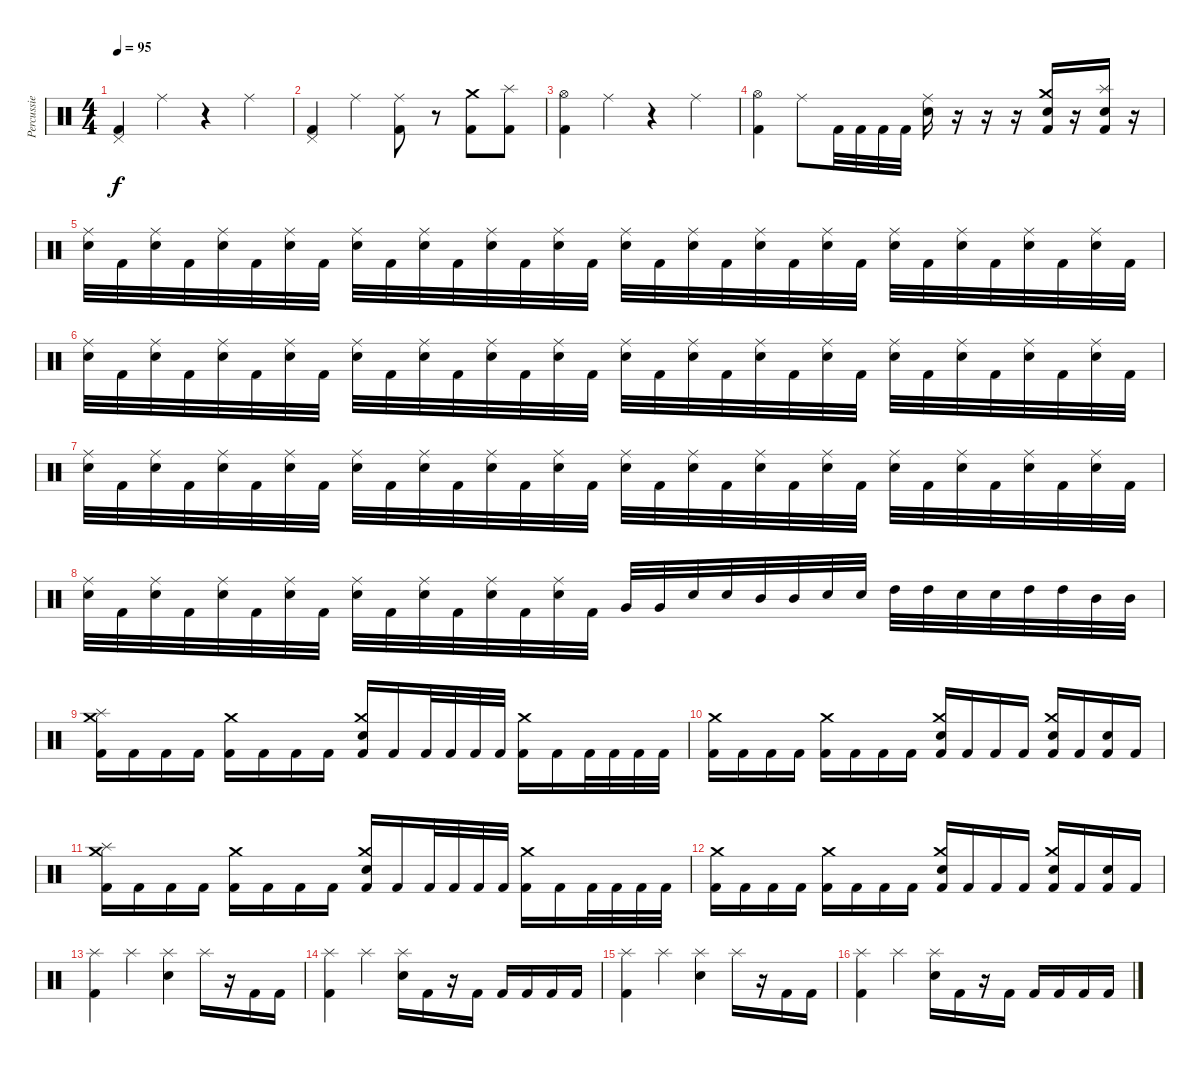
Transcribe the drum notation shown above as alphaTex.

\track ("Percussie" "Percussie") {instrument percussion}
\staff {score}
\articulation defaults
\ts (4 4)
\tempo 95
\clef neutral
\ks c
("Pedal Hi-Hat (hit)" "Kick (hit) 2").4{dy f} "Ride (middle)".4 r.4 "Ride (middle)".4 |
("Pedal Hi-Hat (hit)" "Kick (hit) 2").4 "Ride (middle)".4 ("Ride (middle)" "Kick (hit) 2").8 r.8 ("Crash medium (hit)" "Kick (hit) 2").8 ("Splash (hit)" "Kick (hit) 2").8 |
("Hi-Hat (open)" "Kick (hit) 2").4 "Ride (middle)".4 r.4 "Ride (middle)".4 |
("Hi-Hat (open)" "Kick (hit) 2").4 "Ride (middle)".8 "Kick (hit) 2".32 "Kick (hit) 2".32 "Kick (hit) 2".32 "Kick (hit) 2".32 ("Ride (middle)" "Electric Snare (hit)").16 r.16 r.16 r.16 ("Crash medium (hit)" "Electric Snare (hit)" "Kick (hit) 2").16 r.16 ("Splash (hit)" "Electric Snare (hit)" "Kick (hit) 2").16 r.16 |
("Ride (middle)" "Electric Snare (hit)").32 "Kick (hit) 2".32 ("Ride (middle)" "Electric Snare (hit)").32 "Kick (hit) 2".32 ("Ride (middle)" "Electric Snare (hit)").32 "Kick (hit) 2".32 ("Ride (middle)" "Electric Snare (hit)").32 "Kick (hit) 2".32 ("Ride (middle)" "Electric Snare (hit)").32 "Kick (hit) 2".32 ("Ride (middle)" "Electric Snare (hit)").32 "Kick (hit) 2".32 ("Ride (middle)" "Electric Snare (hit)").32 "Kick (hit) 2".32 ("Ride (middle)" "Electric Snare (hit)").32 "Kick (hit) 2".32 ("Ride (middle)" "Electric Snare (hit)").32 "Kick (hit) 2".32 ("Ride (middle)" "Electric Snare (hit)").32 "Kick (hit) 2".32 ("Ride (middle)" "Electric Snare (hit)").32 "Kick (hit) 2".32 ("Ride (middle)" "Electric Snare (hit)").32 "Kick (hit) 2".32 ("Ride (middle)" "Electric Snare (hit)").32 "Kick (hit) 2".32 ("Ride (middle)" "Electric Snare (hit)").32 "Kick (hit) 2".32 ("Ride (middle)" "Electric Snare (hit)").32 "Kick (hit) 2".32 ("Ride (middle)" "Electric Snare (hit)").32 "Kick (hit) 2".32 |
("Ride (middle)" "Electric Snare (hit)").32 "Kick (hit) 2".32 ("Ride (middle)" "Electric Snare (hit)").32 "Kick (hit) 2".32 ("Ride (middle)" "Electric Snare (hit)").32 "Kick (hit) 2".32 ("Ride (middle)" "Electric Snare (hit)").32 "Kick (hit) 2".32 ("Ride (middle)" "Electric Snare (hit)").32 "Kick (hit) 2".32 ("Ride (middle)" "Electric Snare (hit)").32 "Kick (hit) 2".32 ("Ride (middle)" "Electric Snare (hit)").32 "Kick (hit) 2".32 ("Ride (middle)" "Electric Snare (hit)").32 "Kick (hit) 2".32 ("Ride (middle)" "Electric Snare (hit)").32 "Kick (hit) 2".32 ("Ride (middle)" "Electric Snare (hit)").32 "Kick (hit) 2".32 ("Ride (middle)" "Electric Snare (hit)").32 "Kick (hit) 2".32 ("Ride (middle)" "Electric Snare (hit)").32 "Kick (hit) 2".32 ("Ride (middle)" "Electric Snare (hit)").32 "Kick (hit) 2".32 ("Ride (middle)" "Electric Snare (hit)").32 "Kick (hit) 2".32 ("Ride (middle)" "Electric Snare (hit)").32 "Kick (hit) 2".32 ("Ride (middle)" "Electric Snare (hit)").32 "Kick (hit) 2".32 |
("Ride (middle)" "Electric Snare (hit)").32 "Kick (hit) 2".32 ("Ride (middle)" "Electric Snare (hit)").32 "Kick (hit) 2".32 ("Ride (middle)" "Electric Snare (hit)").32 "Kick (hit) 2".32 ("Ride (middle)" "Electric Snare (hit)").32 "Kick (hit) 2".32 ("Ride (middle)" "Electric Snare (hit)").32 "Kick (hit) 2".32 ("Ride (middle)" "Electric Snare (hit)").32 "Kick (hit) 2".32 ("Ride (middle)" "Electric Snare (hit)").32 "Kick (hit) 2".32 ("Ride (middle)" "Electric Snare (hit)").32 "Kick (hit) 2".32 ("Ride (middle)" "Electric Snare (hit)").32 "Kick (hit) 2".32 ("Ride (middle)" "Electric Snare (hit)").32 "Kick (hit) 2".32 ("Ride (middle)" "Electric Snare (hit)").32 "Kick (hit) 2".32 ("Ride (middle)" "Electric Snare (hit)").32 "Kick (hit) 2".32 ("Ride (middle)" "Electric Snare (hit)").32 "Kick (hit) 2".32 ("Ride (middle)" "Electric Snare (hit)").32 "Kick (hit) 2".32 ("Ride (middle)" "Electric Snare (hit)").32 "Kick (hit) 2".32 ("Ride (middle)" "Electric Snare (hit)").32 "Kick (hit) 2".32 |
("Ride (middle)" "Electric Snare (hit)").32 "Kick (hit) 2".32 ("Ride (middle)" "Electric Snare (hit)").32 "Kick (hit) 2".32 ("Ride (middle)" "Electric Snare (hit)").32 "Kick (hit) 2".32 ("Ride (middle)" "Electric Snare (hit)").32 "Kick (hit) 2".32 ("Ride (middle)" "Electric Snare (hit)").32 "Kick (hit) 2".32 ("Ride (middle)" "Electric Snare (hit)").32 "Kick (hit) 2".32 ("Ride (middle)" "Electric Snare (hit)").32 "Kick (hit) 2".32 ("Ride (middle)" "Electric Snare (hit)").32 "Kick (hit) 2".32 "Very Low Tom (hit)".32 "Very Low Tom (hit)".32 "Electric Snare (hit)".32 "Electric Snare (hit)".32 "Mid Tom (hit)".32 "Mid Tom (hit)".32 "Electric Snare (hit)".32 "Electric Snare (hit)".32 "High Tom (hit)".32 "High Tom (hit)".32 "Electric Snare (hit)".32 "Electric Snare (hit)".32 "High Tom (hit)".32 "High Tom (hit)".32 "Mid Tom (hit)".32 "Mid Tom (hit)".32 |
("Crash medium (hit)" "Splash (hit)" "Kick (hit) 2").16 "Kick (hit) 2".16 "Kick (hit) 2".16 "Kick (hit) 2".16 ("Crash medium (hit)" "Kick (hit) 2").16 "Kick (hit) 2".16 "Kick (hit) 2".16 "Kick (hit) 2".16 ("Crash medium (hit)" "Electric Snare (hit)" "Kick (hit) 2").16 "Kick (hit) 2".16 "Kick (hit) 2".32 "Kick (hit) 2".32 "Kick (hit) 2".32 "Kick (hit) 2".32 ("Crash medium (hit)" "Kick (hit) 2").16 "Kick (hit) 2".16 "Kick (hit) 2".32 "Kick (hit) 2".32 "Kick (hit) 2".32 "Kick (hit) 2".32 |
("Crash medium (hit)" "Kick (hit) 2").16 "Kick (hit) 2".16 "Kick (hit) 2".16 "Kick (hit) 2".16 ("Crash medium (hit)" "Kick (hit) 2").16 "Kick (hit) 2".16 "Kick (hit) 2".16 "Kick (hit) 2".16 ("Crash medium (hit)" "Electric Snare (hit)" "Kick (hit) 2").16 "Kick (hit) 2".16 "Kick (hit) 2".16 "Kick (hit) 2".16 ("Crash medium (hit)" "Electric Snare (hit)" "Kick (hit) 2").16 "Kick (hit) 2".16 ("Electric Snare (hit)" "Kick (hit) 2").16 "Kick (hit) 2".16 |
("Crash medium (hit)" "Splash (hit)" "Kick (hit) 2").16 "Kick (hit) 2".16 "Kick (hit) 2".16 "Kick (hit) 2".16 ("Crash medium (hit)" "Kick (hit) 2").16 "Kick (hit) 2".16 "Kick (hit) 2".16 "Kick (hit) 2".16 ("Crash medium (hit)" "Electric Snare (hit)" "Kick (hit) 2").16 "Kick (hit) 2".16 "Kick (hit) 2".32 "Kick (hit) 2".32 "Kick (hit) 2".32 "Kick (hit) 2".32 ("Crash medium (hit)" "Kick (hit) 2").16 "Kick (hit) 2".16 "Kick (hit) 2".32 "Kick (hit) 2".32 "Kick (hit) 2".32 "Kick (hit) 2".32 |
("Crash medium (hit)" "Kick (hit) 2").16 "Kick (hit) 2".16 "Kick (hit) 2".16 "Kick (hit) 2".16 ("Crash medium (hit)" "Kick (hit) 2").16 "Kick (hit) 2".16 "Kick (hit) 2".16 "Kick (hit) 2".16 ("Crash medium (hit)" "Electric Snare (hit)" "Kick (hit) 2").16 "Kick (hit) 2".16 "Kick (hit) 2".16 "Kick (hit) 2".16 ("Crash medium (hit)" "Electric Snare (hit)" "Kick (hit) 2").16 "Kick (hit) 2".16 ("Electric Snare (hit)" "Kick (hit) 2").16 "Kick (hit) 2".16 |
("Splash (hit)" "Kick (hit) 2").4 "Splash (hit)".4 ("Splash (hit)" "Electric Snare (hit)").4 "Splash (hit)".16 r.16 "Kick (hit) 2".16 "Kick (hit) 2".16 |
("Splash (hit)" "Kick (hit) 2").4 "Splash (hit)".4 ("Splash (hit)" "Electric Snare (hit)").16 "Kick (hit) 2".16 r.16 "Kick (hit) 2".16 "Kick (hit) 2".16 "Kick (hit) 2".16 "Kick (hit) 2".16 "Kick (hit) 2".16 |
("Splash (hit)" "Kick (hit) 2").4 "Splash (hit)".4 ("Splash (hit)" "Electric Snare (hit)").4 "Splash (hit)".16 r.16 "Kick (hit) 2".16 "Kick (hit) 2".16 |
("Splash (hit)" "Kick (hit) 2").4 "Splash (hit)".4 ("Splash (hit)" "Electric Snare (hit)").16 "Kick (hit) 2".16 r.16 "Kick (hit) 2".16 "Kick (hit) 2".16 "Kick (hit) 2".16 "Kick (hit) 2".16 "Kick (hit) 2".16
